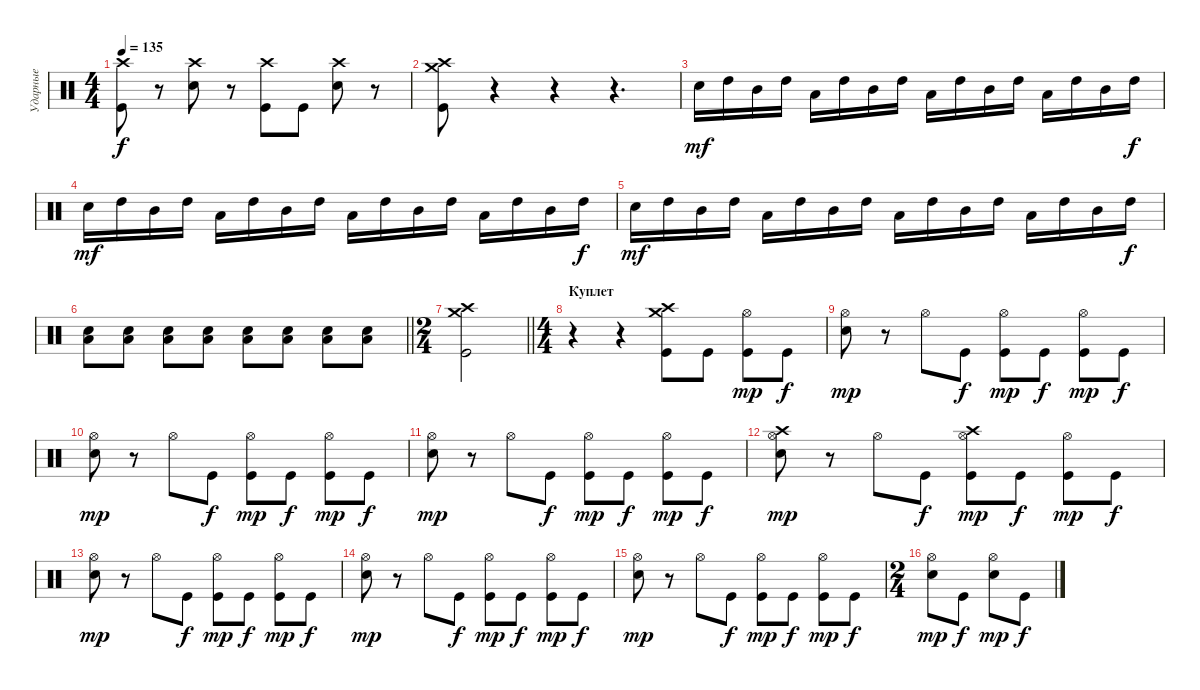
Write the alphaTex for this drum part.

\track ("Ударные" "Ударные") {instrument percussion bank 9}
\staff {score}
\articulation defaults
\ts (4 4)
\tempo 135
\clef neutral
\ks c
("Crash high (hit)" "Kick (hit)").8{dy f} r.8 ("Crash high (hit)" "Electric Snare (hit)").8 r.8 ("Crash high (hit)" "Kick (hit)").8 "Kick (hit)".8 ("Crash high (hit)" "Electric Snare (hit)").8 r.8 |
("Crash high (hit)" "Kick (hit)" "Crash medium (hit)").8 r.4 r.4 r.4{d} |
"Electric Snare (hit)".16{dy mf} "High Tom (hit)".16 "Mid Tom (hit)".16 "High Tom (hit)".16 "Low Tom (hit)".16 "High Tom (hit)".16 "Mid Tom (hit)".16 "High Tom (hit)".16 "Low Tom (hit)".16 "High Tom (hit)".16 "Mid Tom (hit)".16 "High Tom (hit)".16 "Low Tom (hit)".16 "High Tom (hit)".16 "Mid Tom (hit)".16 "High Tom (hit)".16{dy f} |
"Electric Snare (hit)".16{dy mf} "High Tom (hit)".16 "Mid Tom (hit)".16 "High Tom (hit)".16 "Low Tom (hit)".16 "High Tom (hit)".16 "Mid Tom (hit)".16 "High Tom (hit)".16 "Low Tom (hit)".16 "High Tom (hit)".16 "Mid Tom (hit)".16 "High Tom (hit)".16 "Low Tom (hit)".16 "High Tom (hit)".16 "Mid Tom (hit)".16 "High Tom (hit)".16{dy f} |
"Electric Snare (hit)".16{dy mf} "High Tom (hit)".16 "Mid Tom (hit)".16 "High Tom (hit)".16 "Low Tom (hit)".16 "High Tom (hit)".16 "Mid Tom (hit)".16 "High Tom (hit)".16 "Low Tom (hit)".16 "High Tom (hit)".16 "Mid Tom (hit)".16 "High Tom (hit)".16 "Low Tom (hit)".16 "High Tom (hit)".16 "Mid Tom (hit)".16 "High Tom (hit)".16{dy f} |
\barLineRight lightlight
("Low Tom (hit)" "Electric Snare (hit)").8 ("Low Tom (hit)" "Electric Snare (hit)").8 ("Low Tom (hit)" "Electric Snare (hit)").8 ("Low Tom (hit)" "Electric Snare (hit)").8 ("Low Tom (hit)" "Electric Snare (hit)").8 ("Low Tom (hit)" "Electric Snare (hit)").8 ("Low Tom (hit)" "Electric Snare (hit)").8 ("Low Tom (hit)" "Electric Snare (hit)").8 |
\ts (2 4)
\barLineRight lightlight
("Crash medium (hit)" "Crash high (hit)" "Kick (hit)").2 |
\ts (4 4)
\section ("" "Куплет")
r.4 r.4 ("Crash medium (hit)" "Crash high (hit)" "Kick (hit)").8 "Kick (hit)".8 ("Kick (hit)" "Hi-Hat (open)").8{dy mp} "Kick (hit)".8{dy f} |
("Electric Snare (hit)" "Hi-Hat (open)").8{dy mp} r.8 "Hi-Hat (open)".8 "Kick (hit)".8{dy f} ("Kick (hit)" "Hi-Hat (open)").8{dy mp} "Kick (hit)".8{dy f} ("Kick (hit)" "Hi-Hat (open)").8{dy mp} "Kick (hit)".8{dy f} |
("Electric Snare (hit)" "Hi-Hat (open)").8{dy mp} r.8 "Hi-Hat (open)".8 "Kick (hit)".8{dy f} ("Kick (hit)" "Hi-Hat (open)").8{dy mp} "Kick (hit)".8{dy f} ("Kick (hit)" "Hi-Hat (open)").8{dy mp} "Kick (hit)".8{dy f} |
("Electric Snare (hit)" "Hi-Hat (open)").8{dy mp} r.8 "Hi-Hat (open)".8 "Kick (hit)".8{dy f} ("Kick (hit)" "Hi-Hat (open)").8{dy mp} "Kick (hit)".8{dy f} ("Kick (hit)" "Hi-Hat (open)").8{dy mp} "Kick (hit)".8{dy f} |
("Electric Snare (hit)" "Crash high (hit)" "Hi-Hat (open)").8{dy mp} r.8 "Hi-Hat (open)".8 "Kick (hit)".8{dy f} ("Crash high (hit)" "Kick (hit)" "Hi-Hat (open)").8{dy mp} "Kick (hit)".8{dy f} ("Kick (hit)" "Hi-Hat (open)").8{dy mp} "Kick (hit)".8{dy f} |
("Electric Snare (hit)" "Hi-Hat (open)").8{dy mp} r.8 "Hi-Hat (open)".8 "Kick (hit)".8{dy f} ("Kick (hit)" "Hi-Hat (open)").8{dy mp} "Kick (hit)".8{dy f} ("Kick (hit)" "Hi-Hat (open)").8{dy mp} "Kick (hit)".8{dy f} |
("Electric Snare (hit)" "Hi-Hat (open)").8{dy mp} r.8 "Hi-Hat (open)".8 "Kick (hit)".8{dy f} ("Kick (hit)" "Hi-Hat (open)").8{dy mp} "Kick (hit)".8{dy f} ("Kick (hit)" "Hi-Hat (open)").8{dy mp} "Kick (hit)".8{dy f} |
("Electric Snare (hit)" "Hi-Hat (open)").8{dy mp} r.8 "Hi-Hat (open)".8 "Kick (hit)".8{dy f} ("Kick (hit)" "Hi-Hat (open)").8{dy mp} "Kick (hit)".8{dy f} ("Kick (hit)" "Hi-Hat (open)").8{dy mp} "Kick (hit)".8{dy f} |
\ts (2 4)
("Electric Snare (hit)" "Hi-Hat (open)").8{dy mp} "Kick (hit)".8{dy f} ("Electric Snare (hit)" "Hi-Hat (open)").8{dy mp} "Kick (hit)".8{dy f}
